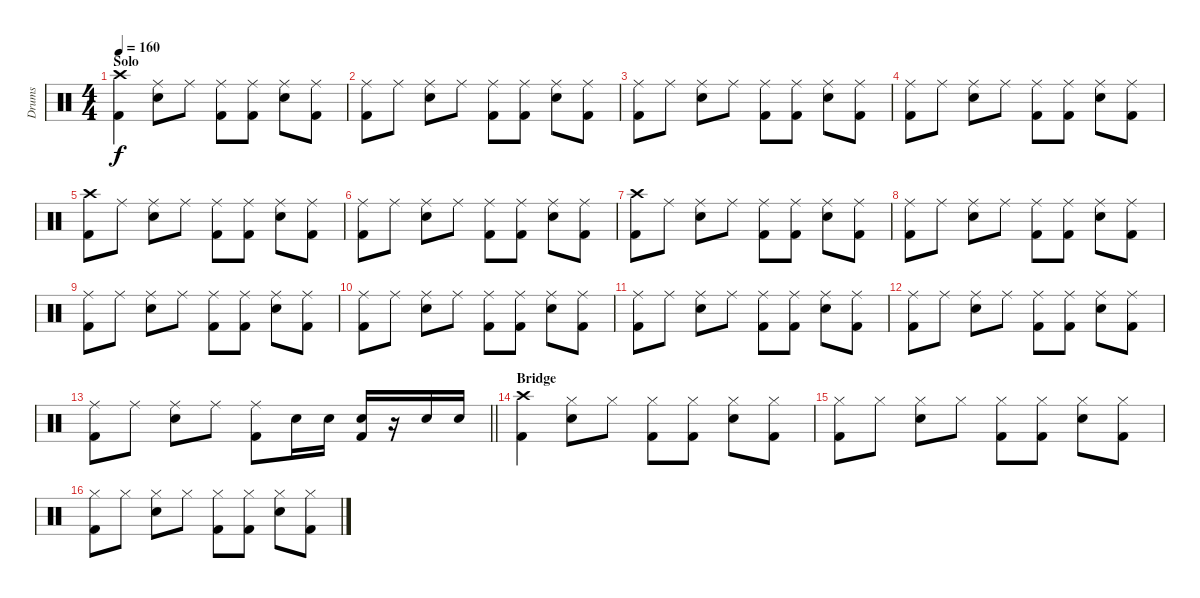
\track ("Drums" "Drums") {instrument percussion}
\staff {score}
\articulation defaults
\ts (4 4)
\section ("" "Solo")
\tempo 160
\clef neutral
\ks c
("Crash high (hit)" "Kick (hit) 2").4{dy f} ("Ride (middle)" "Electric Snare (hit)").8 "Ride (middle)".8 ("Ride (middle)" "Kick (hit) 2").8 ("Ride (middle)" "Kick (hit) 2").8 ("Ride (middle)" "Electric Snare (hit)").8 ("Ride (middle)" "Kick (hit) 2").8 |
("Ride (middle)" "Kick (hit) 2").8 "Ride (middle)".8 ("Ride (middle)" "Electric Snare (hit)").8 "Ride (middle)".8 ("Ride (middle)" "Kick (hit) 2").8 ("Ride (middle)" "Kick (hit) 2").8 ("Ride (middle)" "Electric Snare (hit)").8 ("Ride (middle)" "Kick (hit) 2").8 |
("Ride (middle)" "Kick (hit) 2").8 "Ride (middle)".8 ("Ride (middle)" "Electric Snare (hit)").8 "Ride (middle)".8 ("Ride (middle)" "Kick (hit) 2").8 ("Ride (middle)" "Kick (hit) 2").8 ("Ride (middle)" "Electric Snare (hit)").8 ("Ride (middle)" "Kick (hit) 2").8 |
("Ride (middle)" "Kick (hit) 2").8 "Ride (middle)".8 ("Ride (middle)" "Electric Snare (hit)").8 "Ride (middle)".8 ("Ride (middle)" "Kick (hit) 2").8 ("Ride (middle)" "Kick (hit) 2").8 ("Ride (middle)" "Electric Snare (hit)").8 ("Ride (middle)" "Kick (hit) 2").8 |
("Crash high (hit)" "Kick (hit) 2").8 "Ride (middle)".8 ("Ride (middle)" "Electric Snare (hit)").8 "Ride (middle)".8 ("Ride (middle)" "Kick (hit) 2").8 ("Ride (middle)" "Kick (hit) 2").8 ("Ride (middle)" "Electric Snare (hit)").8 ("Ride (middle)" "Kick (hit) 2").8 |
("Ride (middle)" "Kick (hit) 2").8 "Ride (middle)".8 ("Ride (middle)" "Electric Snare (hit)").8 "Ride (middle)".8 ("Ride (middle)" "Kick (hit) 2").8 ("Ride (middle)" "Kick (hit) 2").8 ("Ride (middle)" "Electric Snare (hit)").8 ("Ride (middle)" "Kick (hit) 2").8 |
("Crash high (hit)" "Kick (hit) 2").8 "Ride (middle)".8 ("Ride (middle)" "Electric Snare (hit)").8 "Ride (middle)".8 ("Ride (middle)" "Kick (hit) 2").8 ("Ride (middle)" "Kick (hit) 2").8 ("Ride (middle)" "Electric Snare (hit)").8 ("Ride (middle)" "Kick (hit) 2").8 |
("Ride (middle)" "Kick (hit) 2").8 "Ride (middle)".8 ("Ride (middle)" "Electric Snare (hit)").8 "Ride (middle)".8 ("Ride (middle)" "Kick (hit) 2").8 ("Ride (middle)" "Kick (hit) 2").8 ("Ride (middle)" "Electric Snare (hit)").8 ("Ride (middle)" "Kick (hit) 2").8 |
("Ride (middle)" "Kick (hit) 2").8 "Ride (middle)".8 ("Ride (middle)" "Electric Snare (hit)").8 "Ride (middle)".8 ("Ride (middle)" "Kick (hit) 2").8 ("Ride (middle)" "Kick (hit) 2").8 ("Ride (middle)" "Electric Snare (hit)").8 ("Ride (middle)" "Kick (hit) 2").8 |
("Ride (middle)" "Kick (hit) 2").8 "Ride (middle)".8 ("Ride (middle)" "Electric Snare (hit)").8 "Ride (middle)".8 ("Ride (middle)" "Kick (hit) 2").8 ("Ride (middle)" "Kick (hit) 2").8 ("Ride (middle)" "Electric Snare (hit)").8 ("Ride (middle)" "Kick (hit) 2").8 |
("Ride (middle)" "Kick (hit) 2").8 "Ride (middle)".8 ("Ride (middle)" "Electric Snare (hit)").8 "Ride (middle)".8 ("Ride (middle)" "Kick (hit) 2").8 ("Ride (middle)" "Kick (hit) 2").8 ("Ride (middle)" "Electric Snare (hit)").8 ("Ride (middle)" "Kick (hit) 2").8 |
("Ride (middle)" "Kick (hit) 2").8 "Ride (middle)".8 ("Ride (middle)" "Electric Snare (hit)").8 "Ride (middle)".8 ("Ride (middle)" "Kick (hit) 2").8 ("Ride (middle)" "Kick (hit) 2").8 ("Ride (middle)" "Electric Snare (hit)").8 ("Ride (middle)" "Kick (hit) 2").8 |
\barLineRight lightlight
("Ride (middle)" "Kick (hit) 2").8 "Ride (middle)".8 ("Ride (middle)" "Electric Snare (hit)").8 "Ride (middle)".8 ("Ride (middle)" "Kick (hit) 2").8 "Electric Snare (hit)".16 "Electric Snare (hit)".16 ("Electric Snare (hit)" "Kick (hit) 2").16 r.16 "Electric Snare (hit)".16 "Electric Snare (hit)".16 |
\section ("" "Bridge")
("Crash high (hit)" "Kick (hit) 2").4 ("Hi-Hat (closed)" "Electric Snare (hit)").8 "Hi-Hat (closed)".8 ("Hi-Hat (closed)" "Kick (hit) 2").8 ("Hi-Hat (closed)" "Kick (hit) 2").8 ("Hi-Hat (closed)" "Electric Snare (hit)").8 ("Hi-Hat (closed)" "Kick (hit) 2").8 |
("Hi-Hat (closed)" "Kick (hit) 2").8 "Hi-Hat (closed)".8 ("Hi-Hat (closed)" "Electric Snare (hit)").8 "Hi-Hat (closed)".8 ("Hi-Hat (closed)" "Kick (hit) 2").8 ("Hi-Hat (closed)" "Kick (hit) 2").8 ("Hi-Hat (closed)" "Electric Snare (hit)").8 ("Hi-Hat (closed)" "Kick (hit) 2").8 |
("Hi-Hat (closed)" "Kick (hit) 2").8 "Hi-Hat (closed)".8 ("Hi-Hat (closed)" "Electric Snare (hit)").8 "Hi-Hat (closed)".8 ("Hi-Hat (closed)" "Kick (hit) 2").8 ("Hi-Hat (closed)" "Kick (hit) 2").8 ("Hi-Hat (closed)" "Electric Snare (hit)").8 ("Hi-Hat (closed)" "Kick (hit) 2").8
